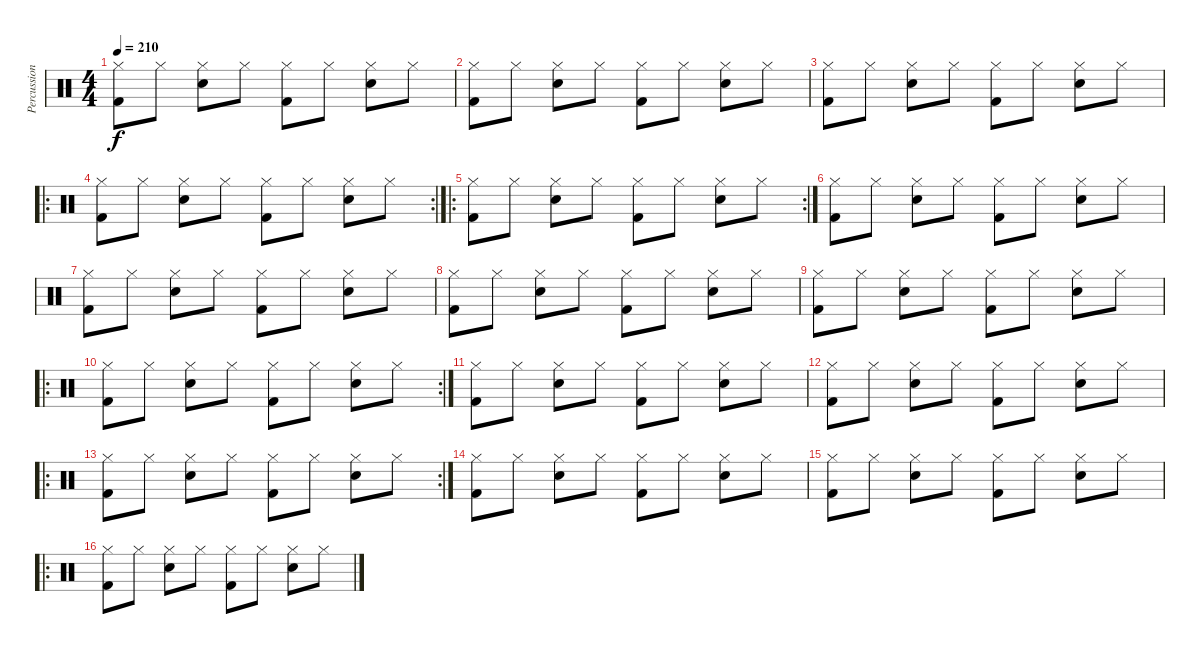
\track ("Percussion" "Percussion") {instrument percussion}
\staff {score}
\articulation defaults
\ts (4 4)
\tempo 210
\clef neutral
\ks c
("Hi-Hat (closed)" "Kick (hit) 2").8{dy f} "Hi-Hat (closed)".8 ("Hi-Hat (closed)" "Snare (hit) 2").8 "Hi-Hat (closed)".8 ("Hi-Hat (closed)" "Kick (hit) 2").8 "Hi-Hat (closed)".8 ("Hi-Hat (closed)" "Snare (hit) 2").8 "Hi-Hat (closed)".8 |
("Hi-Hat (closed)" "Kick (hit) 2").8 "Hi-Hat (closed)".8 ("Hi-Hat (closed)" "Snare (hit) 2").8 "Hi-Hat (closed)".8 ("Hi-Hat (closed)" "Kick (hit) 2").8 "Hi-Hat (closed)".8 ("Hi-Hat (closed)" "Snare (hit) 2").8 "Hi-Hat (closed)".8 |
("Hi-Hat (closed)" "Kick (hit) 2").8 "Hi-Hat (closed)".8 ("Hi-Hat (closed)" "Snare (hit) 2").8 "Hi-Hat (closed)".8 ("Hi-Hat (closed)" "Kick (hit) 2").8 "Hi-Hat (closed)".8 ("Hi-Hat (closed)" "Snare (hit) 2").8 "Hi-Hat (closed)".8 |
\ro
\rc 2
("Hi-Hat (closed)" "Kick (hit) 2").8 "Hi-Hat (closed)".8 ("Hi-Hat (closed)" "Snare (hit) 2").8 "Hi-Hat (closed)".8 ("Hi-Hat (closed)" "Kick (hit) 2").8 "Hi-Hat (closed)".8 ("Hi-Hat (closed)" "Snare (hit) 2").8 "Hi-Hat (closed)".8 |
\ro
\rc 2
("Hi-Hat (closed)" "Kick (hit) 2").8 "Hi-Hat (closed)".8 ("Hi-Hat (closed)" "Snare (hit) 2").8 "Hi-Hat (closed)".8 ("Hi-Hat (closed)" "Kick (hit) 2").8 "Hi-Hat (closed)".8 ("Hi-Hat (closed)" "Snare (hit) 2").8 "Hi-Hat (closed)".8 |
("Hi-Hat (closed)" "Kick (hit) 2").8 "Hi-Hat (closed)".8 ("Hi-Hat (closed)" "Snare (hit) 2").8 "Hi-Hat (closed)".8 ("Hi-Hat (closed)" "Kick (hit) 2").8 "Hi-Hat (closed)".8 ("Hi-Hat (closed)" "Snare (hit) 2").8 "Hi-Hat (closed)".8 |
("Hi-Hat (closed)" "Kick (hit) 2").8 "Hi-Hat (closed)".8 ("Hi-Hat (closed)" "Snare (hit) 2").8 "Hi-Hat (closed)".8 ("Hi-Hat (closed)" "Kick (hit) 2").8 "Hi-Hat (closed)".8 ("Hi-Hat (closed)" "Snare (hit) 2").8 "Hi-Hat (closed)".8 |
("Hi-Hat (closed)" "Kick (hit) 2").8 "Hi-Hat (closed)".8 ("Hi-Hat (closed)" "Snare (hit) 2").8 "Hi-Hat (closed)".8 ("Hi-Hat (closed)" "Kick (hit) 2").8 "Hi-Hat (closed)".8 ("Hi-Hat (closed)" "Snare (hit) 2").8 "Hi-Hat (closed)".8 |
("Hi-Hat (closed)" "Kick (hit) 2").8 "Hi-Hat (closed)".8 ("Hi-Hat (closed)" "Snare (hit) 2").8 "Hi-Hat (closed)".8 ("Hi-Hat (closed)" "Kick (hit) 2").8 "Hi-Hat (closed)".8 ("Hi-Hat (closed)" "Snare (hit) 2").8 "Hi-Hat (closed)".8 |
\ro
\rc 2
("Hi-Hat (closed)" "Kick (hit) 2").8 "Hi-Hat (closed)".8 ("Hi-Hat (closed)" "Snare (hit) 2").8 "Hi-Hat (closed)".8 ("Hi-Hat (closed)" "Kick (hit) 2").8 "Hi-Hat (closed)".8 ("Hi-Hat (closed)" "Snare (hit) 2").8 "Hi-Hat (closed)".8 |
("Hi-Hat (closed)" "Kick (hit) 2").8 "Hi-Hat (closed)".8 ("Hi-Hat (closed)" "Snare (hit) 2").8 "Hi-Hat (closed)".8 ("Hi-Hat (closed)" "Kick (hit) 2").8 "Hi-Hat (closed)".8 ("Hi-Hat (closed)" "Snare (hit) 2").8 "Hi-Hat (closed)".8 |
("Hi-Hat (closed)" "Kick (hit) 2").8 "Hi-Hat (closed)".8 ("Hi-Hat (closed)" "Snare (hit) 2").8 "Hi-Hat (closed)".8 ("Hi-Hat (closed)" "Kick (hit) 2").8 "Hi-Hat (closed)".8 ("Hi-Hat (closed)" "Snare (hit) 2").8 "Hi-Hat (closed)".8 |
\ro
\rc 2
("Hi-Hat (closed)" "Kick (hit) 2").8 "Hi-Hat (closed)".8 ("Hi-Hat (closed)" "Snare (hit) 2").8 "Hi-Hat (closed)".8 ("Hi-Hat (closed)" "Kick (hit) 2").8 "Hi-Hat (closed)".8 ("Hi-Hat (closed)" "Snare (hit) 2").8 "Hi-Hat (closed)".8 |
("Hi-Hat (closed)" "Kick (hit) 2").8 "Hi-Hat (closed)".8 ("Hi-Hat (closed)" "Snare (hit) 2").8 "Hi-Hat (closed)".8 ("Hi-Hat (closed)" "Kick (hit) 2").8 "Hi-Hat (closed)".8 ("Hi-Hat (closed)" "Snare (hit) 2").8 "Hi-Hat (closed)".8 |
("Hi-Hat (closed)" "Kick (hit) 2").8 "Hi-Hat (closed)".8 ("Hi-Hat (closed)" "Snare (hit) 2").8 "Hi-Hat (closed)".8 ("Hi-Hat (closed)" "Kick (hit) 2").8 "Hi-Hat (closed)".8 ("Hi-Hat (closed)" "Snare (hit) 2").8 "Hi-Hat (closed)".8 |
\ro
("Hi-Hat (closed)" "Kick (hit) 2").8 "Hi-Hat (closed)".8 ("Hi-Hat (closed)" "Snare (hit) 2").8 "Hi-Hat (closed)".8 ("Hi-Hat (closed)" "Kick (hit) 2").8 "Hi-Hat (closed)".8 ("Hi-Hat (closed)" "Snare (hit) 2").8 "Hi-Hat (closed)".8
